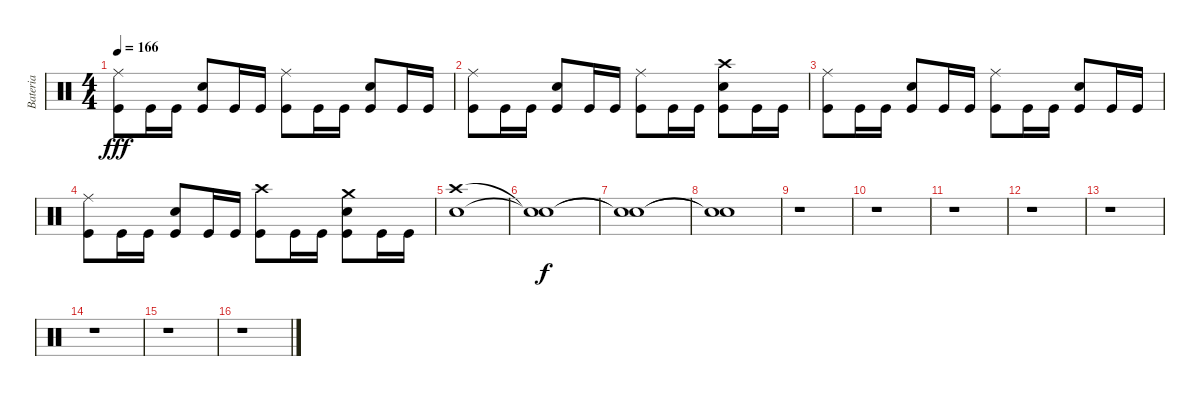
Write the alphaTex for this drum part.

\track ("Bateria" "Bateria") {instrument percussion}
\staff {score}
\articulation defaults
\ts (4 4)
\tempo 166
\clef neutral
\ks c
("Ride (middle)" "Kick (hit)").8{dy fff} "Kick (hit)".16 "Kick (hit)".16 ("Snare (hit) 2" "Kick (hit)").8 "Kick (hit)".16 "Kick (hit)".16 ("Ride (middle)" "Kick (hit)").8 "Kick (hit)".16 "Kick (hit)".16 ("Snare (hit) 2" "Kick (hit)").8 "Kick (hit)".16 "Kick (hit)".16 |
("Ride (middle)" "Kick (hit)").8 "Kick (hit)".16 "Kick (hit)".16 ("Snare (hit) 2" "Kick (hit)").8 "Kick (hit)".16 "Kick (hit)".16 ("Ride (middle)" "Kick (hit)").8 "Kick (hit)".16 "Kick (hit)".16 ("Snare (hit) 2" "Kick (hit)" "Crash high (hit)").8 "Kick (hit)".16 "Kick (hit)".16 |
("Ride (middle)" "Kick (hit)").8 "Kick (hit)".16 "Kick (hit)".16 ("Snare (hit) 2" "Kick (hit)").8 "Kick (hit)".16 "Kick (hit)".16 ("Ride (middle)" "Kick (hit)").8 "Kick (hit)".16 "Kick (hit)".16 ("Snare (hit) 2" "Kick (hit)").8 "Kick (hit)".16 "Kick (hit)".16 |
("Ride (middle)" "Kick (hit)").8 "Kick (hit)".16 "Kick (hit)".16 ("Snare (hit) 2" "Kick (hit)").8 "Kick (hit)".16 "Kick (hit)".16 ("Kick (hit)" "Crash high (hit)").8 "Kick (hit)".16 "Kick (hit)".16 ("Snare (hit) 2" "Kick (hit)" "Crash medium (hit)").8 "Kick (hit)".16 "Kick (hit)".16 |
("Crash high (hit)" "Snare (hit) 2").1 |
("Snare (hit)"{t} "Snare (hit)"{t}).1{dy f} |
("Snare (hit)"{t} "Snare (hit)"{t}).1 |
("Snare (hit)"{t} "Snare (hit)"{t}).1 |
r.1 |
r.1 |
r.1 |
r.1 |
r.1 |
r.1 |
r.1 |
r.1
